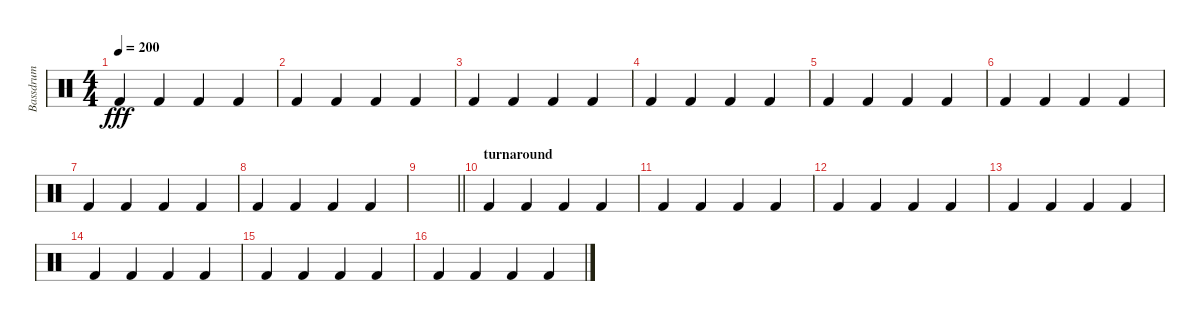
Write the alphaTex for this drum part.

\track ("Bassdrum" "Bassdrum") {instrument percussion}
\staff {score}
\articulation defaults
\ts (4 4)
\tempo 200
\clef neutral
\ks c "Kick (hit) 2".4{dy fff} "Kick (hit) 2".4 "Kick (hit) 2".4 "Kick (hit) 2".4
|
"Kick (hit) 2".4 "Kick (hit) 2".4 "Kick (hit) 2".4 "Kick (hit) 2".4 |
"Kick (hit) 2".4 "Kick (hit) 2".4 "Kick (hit) 2".4 "Kick (hit) 2".4 |
"Kick (hit) 2".4 "Kick (hit) 2".4 "Kick (hit) 2".4 "Kick (hit) 2".4 |
"Kick (hit) 2".4 "Kick (hit) 2".4 "Kick (hit) 2".4 "Kick (hit) 2".4 |
"Kick (hit) 2".4 "Kick (hit) 2".4 "Kick (hit) 2".4 "Kick (hit) 2".4 |
"Kick (hit) 2".4 "Kick (hit) 2".4 "Kick (hit) 2".4 "Kick (hit) 2".4 |
"Kick (hit) 2".4 "Kick (hit) 2".4 "Kick (hit) 2".4 "Kick (hit) 2".4 |
\barLineRight lightlight
|
\section ("" "turnaround")
"Kick (hit) 2".4 "Kick (hit) 2".4 "Kick (hit) 2".4 "Kick (hit) 2".4 |
"Kick (hit) 2".4 "Kick (hit) 2".4 "Kick (hit) 2".4 "Kick (hit) 2".4 |
"Kick (hit) 2".4 "Kick (hit) 2".4 "Kick (hit) 2".4 "Kick (hit) 2".4 |
"Kick (hit) 2".4 "Kick (hit) 2".4 "Kick (hit) 2".4 "Kick (hit) 2".4 |
"Kick (hit) 2".4 "Kick (hit) 2".4 "Kick (hit) 2".4 "Kick (hit) 2".4 |
"Kick (hit) 2".4 "Kick (hit) 2".4 "Kick (hit) 2".4 "Kick (hit) 2".4 |
"Kick (hit) 2".4 "Kick (hit) 2".4 "Kick (hit) 2".4 "Kick (hit) 2".4
